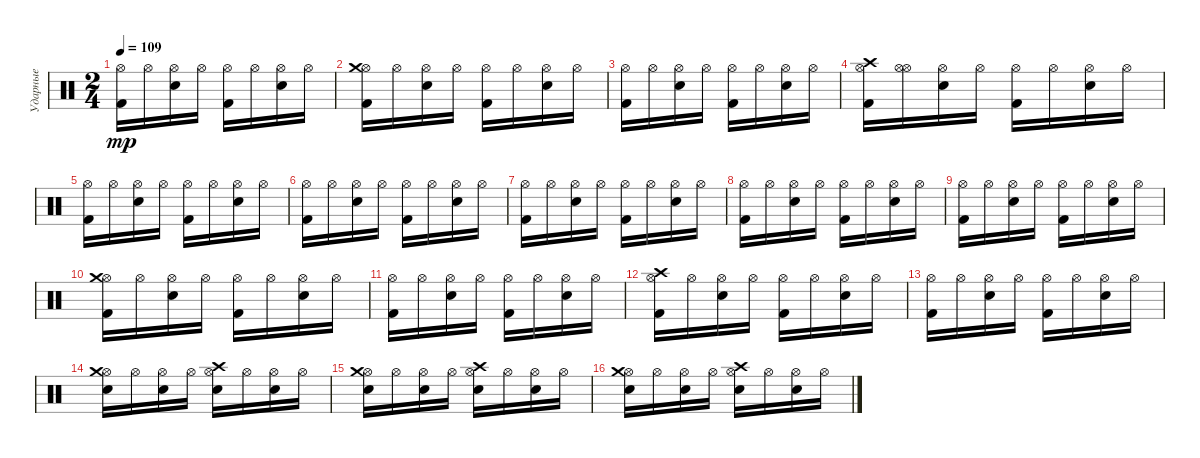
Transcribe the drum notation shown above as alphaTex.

\track ("Ударные" "Ударные") {instrument percussion}
\staff {score}
\articulation defaults
\ts (2 4)
\tempo 109
\clef neutral
\ks c
("Kick (hit) 2" "Hi-Hat (open)").16{dy mp} "Hi-Hat (open)".16 ("Electric Snare (hit)" "Hi-Hat (open)").16 "Hi-Hat (open)".16 ("Kick (hit) 2" "Hi-Hat (open)").16 "Hi-Hat (open)".16 ("Electric Snare (hit)" "Hi-Hat (open)").16 "Hi-Hat (open)".16 |
("Kick (hit) 2" "Hi-Hat (open)" "Crash medium (hit)").16 "Hi-Hat (open)".16 ("Electric Snare (hit)" "Hi-Hat (open)").16 "Hi-Hat (open)".16 ("Kick (hit) 2" "Hi-Hat (open)").16 "Hi-Hat (open)".16 ("Electric Snare (hit)" "Hi-Hat (open)").16 "Hi-Hat (open)".16 |
("Kick (hit) 2" "Hi-Hat (open)").16 "Hi-Hat (open)".16 ("Electric Snare (hit)" "Hi-Hat (open)").16 "Hi-Hat (open)".16 ("Kick (hit) 2" "Hi-Hat (open)").16 "Hi-Hat (open)".16 ("Electric Snare (hit)" "Hi-Hat (open)").16 "Hi-Hat (open)".16 |
("Kick (hit) 2" "Hi-Hat (open)" "Crash high (hit)").16 ("Hi-Hat (open)" "Hi-Hat (open)").16 ("Electric Snare (hit)" "Hi-Hat (open)").16 "Hi-Hat (open)".16 ("Kick (hit) 2" "Hi-Hat (open)").16 "Hi-Hat (open)".16 ("Electric Snare (hit)" "Hi-Hat (open)").16 "Hi-Hat (open)".16 |
("Kick (hit) 2" "Hi-Hat (open)").16 "Hi-Hat (open)".16 ("Electric Snare (hit)" "Hi-Hat (open)").16 "Hi-Hat (open)".16 ("Kick (hit) 2" "Hi-Hat (open)").16 "Hi-Hat (open)".16 ("Electric Snare (hit)" "Hi-Hat (open)").16 "Hi-Hat (open)".16 |
("Kick (hit) 2" "Hi-Hat (open)").16 "Hi-Hat (open)".16 ("Electric Snare (hit)" "Hi-Hat (open)").16 "Hi-Hat (open)".16 ("Kick (hit) 2" "Hi-Hat (open)").16 "Hi-Hat (open)".16 ("Electric Snare (hit)" "Hi-Hat (open)").16 "Hi-Hat (open)".16 |
("Kick (hit) 2" "Hi-Hat (open)").16 "Hi-Hat (open)".16 ("Electric Snare (hit)" "Hi-Hat (open)").16 "Hi-Hat (open)".16 ("Kick (hit) 2" "Hi-Hat (open)").16 "Hi-Hat (open)".16 ("Electric Snare (hit)" "Hi-Hat (open)").16 "Hi-Hat (open)".16 |
("Kick (hit) 2" "Hi-Hat (open)").16 "Hi-Hat (open)".16 ("Electric Snare (hit)" "Hi-Hat (open)").16 "Hi-Hat (open)".16 ("Kick (hit) 2" "Hi-Hat (open)").16 "Hi-Hat (open)".16 ("Electric Snare (hit)" "Hi-Hat (open)").16 "Hi-Hat (open)".16 |
("Kick (hit) 2" "Hi-Hat (open)").16 "Hi-Hat (open)".16 ("Electric Snare (hit)" "Hi-Hat (open)").16 "Hi-Hat (open)".16 ("Kick (hit) 2" "Hi-Hat (open)").16 "Hi-Hat (open)".16 ("Electric Snare (hit)" "Hi-Hat (open)").16 "Hi-Hat (open)".16 |
("Kick (hit) 2" "Hi-Hat (open)" "Crash medium (hit)").16 "Hi-Hat (open)".16 ("Electric Snare (hit)" "Hi-Hat (open)").16 "Hi-Hat (open)".16 ("Kick (hit) 2" "Hi-Hat (open)").16 "Hi-Hat (open)".16 ("Electric Snare (hit)" "Hi-Hat (open)").16 "Hi-Hat (open)".16 |
("Kick (hit) 2" "Hi-Hat (open)").16 "Hi-Hat (open)".16 ("Electric Snare (hit)" "Hi-Hat (open)").16 "Hi-Hat (open)".16 ("Kick (hit) 2" "Hi-Hat (open)").16 "Hi-Hat (open)".16 ("Electric Snare (hit)" "Hi-Hat (open)").16 "Hi-Hat (open)".16 |
("Kick (hit) 2" "Hi-Hat (open)" "Crash high (hit)").16 "Hi-Hat (open)".16 ("Electric Snare (hit)" "Hi-Hat (open)").16 "Hi-Hat (open)".16 ("Kick (hit) 2" "Hi-Hat (open)").16 "Hi-Hat (open)".16 ("Electric Snare (hit)" "Hi-Hat (open)").16 "Hi-Hat (open)".16 |
("Kick (hit) 2" "Hi-Hat (open)").16 "Hi-Hat (open)".16 ("Electric Snare (hit)" "Hi-Hat (open)").16 "Hi-Hat (open)".16 ("Kick (hit) 2" "Hi-Hat (open)").16 "Hi-Hat (open)".16 ("Electric Snare (hit)" "Hi-Hat (open)").16 "Hi-Hat (open)".16 |
("Snare (hit) 2" "Hi-Hat (open)" "Crash medium (hit)").16 "Hi-Hat (open)".16 ("Electric Snare (hit)" "Hi-Hat (open)").16 "Hi-Hat (open)".16 ("Snare (hit) 2" "Hi-Hat (open)" "Crash high (hit)").16 "Hi-Hat (open)".16 ("Electric Snare (hit)" "Hi-Hat (open)").16 "Hi-Hat (open)".16 |
("Snare (hit) 2" "Hi-Hat (open)" "Crash medium (hit)").16 "Hi-Hat (open)".16 ("Electric Snare (hit)" "Hi-Hat (open)").16 "Hi-Hat (open)".16 ("Snare (hit) 2" "Hi-Hat (open)" "Crash high (hit)").16 "Hi-Hat (open)".16 ("Electric Snare (hit)" "Hi-Hat (open)").16 "Hi-Hat (open)".16 |
("Snare (hit) 2" "Hi-Hat (open)" "Crash medium (hit)").16 "Hi-Hat (open)".16 ("Electric Snare (hit)" "Hi-Hat (open)").16 "Hi-Hat (open)".16 ("Snare (hit) 2" "Hi-Hat (open)" "Crash high (hit)").16 "Hi-Hat (open)".16 ("Electric Snare (hit)" "Hi-Hat (open)").16 "Hi-Hat (open)".16
